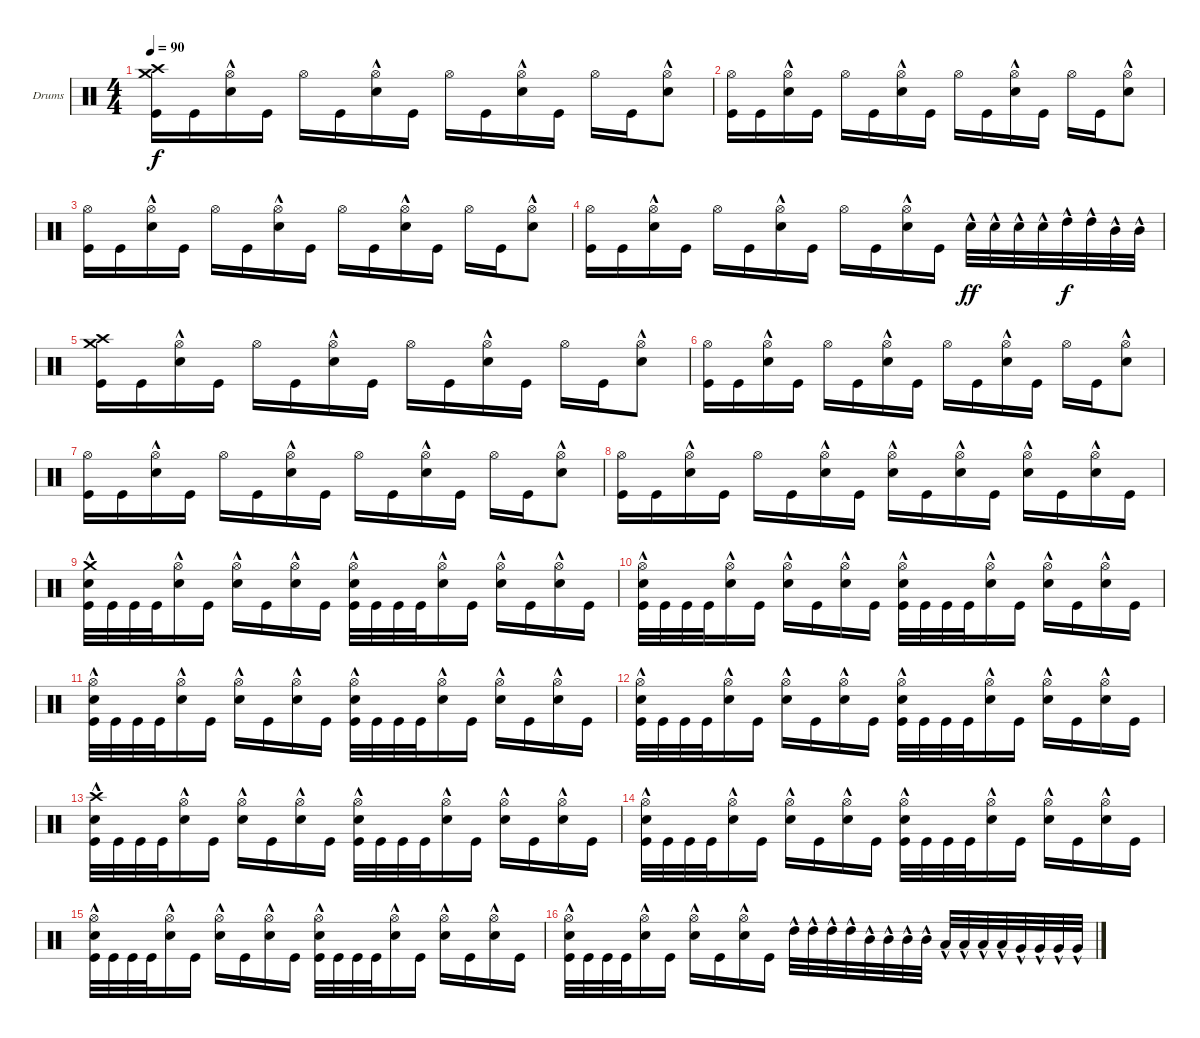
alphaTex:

\bracketExtendMode groupsimilarinstruments
\firstSystemTrackNameOrientation horizontal
\otherSystemsTrackNameOrientation horizontal
\track ("Drumkit (Christoph)" "Drums") {instrument percussion}
\staff {score}
\articulation defaults
\ts (4 4)
\tempo 90
\clef neutral
\ks c
("Crash medium (hit)" "Kick (hit)" "Crash high (hit)").16{dy f} "Kick (hit)".16 ("Hi-Hat (open)" "Snare (hit) 2"{hac}).16 "Kick (hit)".16 "Hi-Hat (open)".16 "Kick (hit)".16 ("Hi-Hat (open)" "Snare (hit) 2"{hac}).16 "Kick (hit)".16 "Hi-Hat (open)".16 "Kick (hit)".16 ("Hi-Hat (open)" "Snare (hit) 2"{hac}).16 "Kick (hit)".16 "Hi-Hat (open)".16 "Kick (hit)".16 ("Hi-Hat (open)" "Snare (hit) 2"{hac}).8 |
("Hi-Hat (open)" "Kick (hit)").16 "Kick (hit)".16 ("Hi-Hat (open)" "Snare (hit) 2"{hac}).16 "Kick (hit)".16 "Hi-Hat (open)".16 "Kick (hit)".16 ("Hi-Hat (open)" "Snare (hit) 2"{hac}).16 "Kick (hit)".16 "Hi-Hat (open)".16 "Kick (hit)".16 ("Hi-Hat (open)" "Snare (hit) 2"{hac}).16 "Kick (hit)".16 "Hi-Hat (open)".16 "Kick (hit)".16 ("Hi-Hat (open)" "Snare (hit) 2"{hac}).8 |
("Hi-Hat (open)" "Kick (hit)").16 "Kick (hit)".16 ("Hi-Hat (open)" "Snare (hit) 2"{hac}).16 "Kick (hit)".16 "Hi-Hat (open)".16 "Kick (hit)".16 ("Hi-Hat (open)" "Snare (hit) 2"{hac}).16 "Kick (hit)".16 "Hi-Hat (open)".16 "Kick (hit)".16 ("Hi-Hat (open)" "Snare (hit) 2"{hac}).16 "Kick (hit)".16 "Hi-Hat (open)".16 "Kick (hit)".16 ("Hi-Hat (open)" "Snare (hit) 2"{hac}).8 |
("Hi-Hat (open)" "Kick (hit)").16 "Kick (hit)".16 ("Hi-Hat (open)" "Snare (hit) 2"{hac}).16 "Kick (hit)".16 "Hi-Hat (open)".16 "Kick (hit)".16 ("Hi-Hat (open)" "Snare (hit) 2"{hac}).16 "Kick (hit)".16 "Hi-Hat (open)".16 "Kick (hit)".16 ("Hi-Hat (open)" "Snare (hit) 2"{hac}).16 "Kick (hit)".16 "Snare (hit) 2"{hac}.32{dy ff} "Snare (hit) 2"{hac}.32 "Snare (hit) 2"{hac}.32 "Snare (hit) 2"{hac}.32 "High Tom (hit)"{hac}.32{dy f} "High Tom (hit)"{hac}.32 "Mid Tom (hit)"{hac}.32 "Mid Tom (hit)"{hac}.32 |
("Crash medium (hit)" "Kick (hit)" "Crash high (hit)").16 "Kick (hit)".16 ("Hi-Hat (open)" "Snare (hit) 2"{hac}).16 "Kick (hit)".16 "Hi-Hat (open)".16 "Kick (hit)".16 ("Hi-Hat (open)" "Snare (hit) 2"{hac}).16 "Kick (hit)".16 "Hi-Hat (open)".16 "Kick (hit)".16 ("Hi-Hat (open)" "Snare (hit) 2"{hac}).16 "Kick (hit)".16 "Hi-Hat (open)".16 "Kick (hit)".16 ("Hi-Hat (open)" "Snare (hit) 2"{hac}).8 |
("Hi-Hat (open)" "Kick (hit)").16 "Kick (hit)".16 ("Hi-Hat (open)" "Snare (hit) 2"{hac}).16 "Kick (hit)".16 "Hi-Hat (open)".16 "Kick (hit)".16 ("Hi-Hat (open)" "Snare (hit) 2"{hac}).16 "Kick (hit)".16 "Hi-Hat (open)".16 "Kick (hit)".16 ("Hi-Hat (open)" "Snare (hit) 2"{hac}).16 "Kick (hit)".16 "Hi-Hat (open)".16 "Kick (hit)".16 ("Hi-Hat (open)" "Snare (hit) 2"{hac}).8 |
("Hi-Hat (open)" "Kick (hit)").16 "Kick (hit)".16 ("Hi-Hat (open)" "Snare (hit) 2"{hac}).16 "Kick (hit)".16 "Hi-Hat (open)".16 "Kick (hit)".16 ("Hi-Hat (open)" "Snare (hit) 2"{hac}).16 "Kick (hit)".16 "Hi-Hat (open)".16 "Kick (hit)".16 ("Hi-Hat (open)" "Snare (hit) 2"{hac}).16 "Kick (hit)".16 "Hi-Hat (open)".16 "Kick (hit)".16 ("Hi-Hat (open)" "Snare (hit) 2"{hac}).8 |
("Hi-Hat (open)" "Kick (hit)").16 "Kick (hit)".16 ("Hi-Hat (open)" "Snare (hit) 2"{hac}).16 "Kick (hit)".16 "Hi-Hat (open)".16 "Kick (hit)".16 ("Hi-Hat (open)" "Snare (hit) 2"{hac}).16 "Kick (hit)".16 ("Hi-Hat (open)" "Snare (hit) 2"{hac}).16 "Kick (hit)".16 ("Hi-Hat (open)" "Snare (hit) 2"{hac}).16 "Kick (hit)".16 ("Hi-Hat (open)" "Snare (hit) 2"{hac}).16 "Kick (hit)".16 ("Hi-Hat (open)" "Snare (hit) 2"{hac}).16 "Kick (hit)".16 |
("Crash medium (hit)" "Kick (hit)" "Snare (hit) 2"{hac}).32 "Kick (hit)".32 "Kick (hit)".32 "Kick (hit)".32 ("Hi-Hat (open)" "Snare (hit) 2"{hac}).16 "Kick (hit)".16 ("Hi-Hat (open)" "Snare (hit) 2"{hac}).16 "Kick (hit)".16 ("Hi-Hat (open)" "Snare (hit) 2"{hac}).16 "Kick (hit)".16 ("Hi-Hat (open)" "Kick (hit)" "Snare (hit) 2"{hac}).32 "Kick (hit)".32 "Kick (hit)".32 "Kick (hit)".32 ("Hi-Hat (open)" "Snare (hit) 2"{hac}).16 "Kick (hit)".16 ("Hi-Hat (open)" "Snare (hit) 2"{hac}).16 "Kick (hit)".16 ("Hi-Hat (open)" "Snare (hit) 2"{hac}).16 "Kick (hit)".16 |
("Hi-Hat (open)" "Kick (hit)" "Snare (hit) 2"{hac}).32 "Kick (hit)".32 "Kick (hit)".32 "Kick (hit)".32 ("Hi-Hat (open)" "Snare (hit) 2"{hac}).16 "Kick (hit)".16 ("Hi-Hat (open)" "Snare (hit) 2"{hac}).16 "Kick (hit)".16 ("Hi-Hat (open)" "Snare (hit) 2"{hac}).16 "Kick (hit)".16 ("Hi-Hat (open)" "Kick (hit)" "Snare (hit) 2"{hac}).32 "Kick (hit)".32 "Kick (hit)".32 "Kick (hit)".32 ("Hi-Hat (open)" "Snare (hit) 2"{hac}).16 "Kick (hit)".16 ("Hi-Hat (open)" "Snare (hit) 2"{hac}).16 "Kick (hit)".16 ("Hi-Hat (open)" "Snare (hit) 2"{hac}).16 "Kick (hit)".16 |
("Hi-Hat (open)" "Kick (hit)" "Snare (hit) 2"{hac}).32 "Kick (hit)".32 "Kick (hit)".32 "Kick (hit)".32 ("Hi-Hat (open)" "Snare (hit) 2"{hac}).16 "Kick (hit)".16 ("Hi-Hat (open)" "Snare (hit) 2"{hac}).16 "Kick (hit)".16 ("Hi-Hat (open)" "Snare (hit) 2"{hac}).16 "Kick (hit)".16 ("Hi-Hat (open)" "Kick (hit)" "Snare (hit) 2"{hac}).32 "Kick (hit)".32 "Kick (hit)".32 "Kick (hit)".32 ("Hi-Hat (open)" "Snare (hit) 2"{hac}).16 "Kick (hit)".16 ("Hi-Hat (open)" "Snare (hit) 2"{hac}).16 "Kick (hit)".16 ("Hi-Hat (open)" "Snare (hit) 2"{hac}).16 "Kick (hit)".16 |
("Hi-Hat (open)" "Kick (hit)" "Snare (hit) 2"{hac}).32 "Kick (hit)".32 "Kick (hit)".32 "Kick (hit)".32 ("Hi-Hat (open)" "Snare (hit) 2"{hac}).16 "Kick (hit)".16 ("Hi-Hat (open)" "Snare (hit) 2"{hac}).16 "Kick (hit)".16 ("Hi-Hat (open)" "Snare (hit) 2"{hac}).16 "Kick (hit)".16 ("Hi-Hat (open)" "Kick (hit)" "Snare (hit) 2"{hac}).32 "Kick (hit)".32 "Kick (hit)".32 "Kick (hit)".32 ("Hi-Hat (open)" "Snare (hit) 2"{hac}).16 "Kick (hit)".16 ("Hi-Hat (open)" "Snare (hit) 2"{hac}).16 "Kick (hit)".16 ("Hi-Hat (open)" "Snare (hit) 2"{hac}).16 "Kick (hit)".16 |
("Crash high (hit)" "Kick (hit)" "Snare (hit) 2"{hac}).32 "Kick (hit)".32 "Kick (hit)".32 "Kick (hit)".32 ("Hi-Hat (open)" "Snare (hit) 2"{hac}).16 "Kick (hit)".16 ("Hi-Hat (open)" "Snare (hit) 2"{hac}).16 "Kick (hit)".16 ("Hi-Hat (open)" "Snare (hit) 2"{hac}).16 "Kick (hit)".16 ("Hi-Hat (open)" "Kick (hit)" "Snare (hit) 2"{hac}).32 "Kick (hit)".32 "Kick (hit)".32 "Kick (hit)".32 ("Hi-Hat (open)" "Snare (hit) 2"{hac}).16 "Kick (hit)".16 ("Hi-Hat (open)" "Snare (hit) 2"{hac}).16 "Kick (hit)".16 ("Hi-Hat (open)" "Snare (hit) 2"{hac}).16 "Kick (hit)".16 |
("Hi-Hat (open)" "Kick (hit)" "Snare (hit) 2"{hac}).32 "Kick (hit)".32 "Kick (hit)".32 "Kick (hit)".32 ("Hi-Hat (open)" "Snare (hit) 2"{hac}).16 "Kick (hit)".16 ("Hi-Hat (open)" "Snare (hit) 2"{hac}).16 "Kick (hit)".16 ("Hi-Hat (open)" "Snare (hit) 2"{hac}).16 "Kick (hit)".16 ("Hi-Hat (open)" "Kick (hit)" "Snare (hit) 2"{hac}).32 "Kick (hit)".32 "Kick (hit)".32 "Kick (hit)".32 ("Hi-Hat (open)" "Snare (hit) 2"{hac}).16 "Kick (hit)".16 ("Hi-Hat (open)" "Snare (hit) 2"{hac}).16 "Kick (hit)".16 ("Hi-Hat (open)" "Snare (hit) 2"{hac}).16 "Kick (hit)".16 |
("Hi-Hat (open)" "Kick (hit)" "Snare (hit) 2"{hac}).32 "Kick (hit)".32 "Kick (hit)".32 "Kick (hit)".32 ("Hi-Hat (open)" "Snare (hit) 2"{hac}).16 "Kick (hit)".16 ("Hi-Hat (open)" "Snare (hit) 2"{hac}).16 "Kick (hit)".16 ("Hi-Hat (open)" "Snare (hit) 2"{hac}).16 "Kick (hit)".16 ("Hi-Hat (open)" "Kick (hit)" "Snare (hit) 2"{hac}).32 "Kick (hit)".32 "Kick (hit)".32 "Kick (hit)".32 ("Hi-Hat (open)" "Snare (hit) 2"{hac}).16 "Kick (hit)".16 ("Hi-Hat (open)" "Snare (hit) 2"{hac}).16 "Kick (hit)".16 ("Hi-Hat (open)" "Snare (hit) 2"{hac}).16 "Kick (hit)".16 |
("Hi-Hat (open)" "Kick (hit)" "Snare (hit) 2"{hac}).32 "Kick (hit)".32 "Kick (hit)".32 "Kick (hit)".32 ("Hi-Hat (open)" "Snare (hit) 2"{hac}).16 "Kick (hit)".16 ("Hi-Hat (open)" "Snare (hit) 2"{hac}).16 "Kick (hit)".16 ("Hi-Hat (open)" "Snare (hit) 2"{hac}).16 "Kick (hit)".16 "High Tom (hit)"{hac}.32 "High Tom (hit)"{hac}.32 "High Tom (hit)"{hac}.32 "High Tom (hit)"{hac}.32 "Mid Tom (hit)"{hac}.32 "Mid Tom (hit)"{hac}.32 "Mid Tom (hit)"{hac}.32 "Mid Tom (hit)"{hac}.32 "Low Tom (hit)"{hac}.32 "Low Tom (hit)"{hac}.32 "Low Tom (hit)"{hac}.32 "Low Tom (hit)"{hac}.32 "Very Low Tom (hit)"{hac}.32 "Very Low Tom (hit)"{hac}.32 "Very Low Tom (hit)"{hac}.32 "Very Low Tom (hit)"{hac}.32
